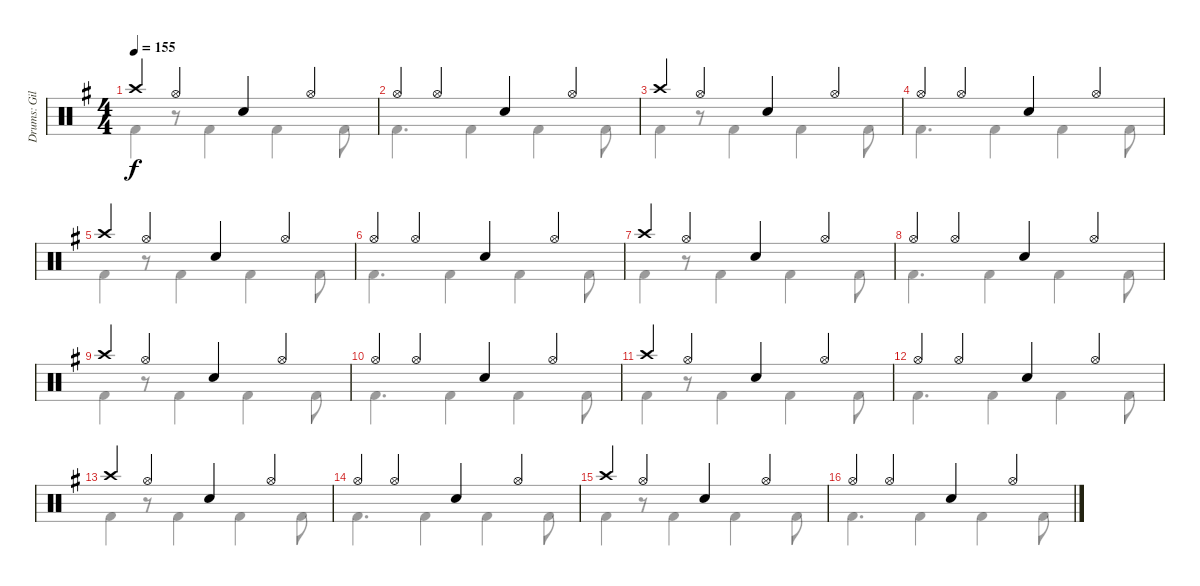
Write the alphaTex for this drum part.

\track ("Drums: Gil" "Drums: Gil") {instrument percussion}
\staff {score}
\articulation defaults
\voice
\ts (4 4)
\tempo 155
\clef neutral
\ks g "Crash high (hit)".4{dy f} "Hi-Hat (open)".4{beam merge} "Snare (hit) 2".4 "Hi-Hat (open)".4
|
"Hi-Hat (open)".4 "Hi-Hat (open)".4{beam merge} "Snare (hit) 2".4 "Hi-Hat (open)".4 |
"Crash high (hit)".4 "Hi-Hat (open)".4{beam merge} "Snare (hit) 2".4 "Hi-Hat (open)".4 |
"Hi-Hat (open)".4 "Hi-Hat (open)".4{beam merge} "Snare (hit) 2".4 "Hi-Hat (open)".4 |
"Crash high (hit)".4 "Hi-Hat (open)".4{beam merge} "Snare (hit) 2".4 "Hi-Hat (open)".4 |
"Hi-Hat (open)".4 "Hi-Hat (open)".4{beam merge} "Snare (hit) 2".4 "Hi-Hat (open)".4 |
"Crash high (hit)".4 "Hi-Hat (open)".4{beam merge} "Snare (hit) 2".4 "Hi-Hat (open)".4 |
"Hi-Hat (open)".4 "Hi-Hat (open)".4{beam merge} "Snare (hit) 2".4 "Hi-Hat (open)".4 |
"Crash high (hit)".4 "Hi-Hat (open)".4{beam merge} "Snare (hit) 2".4 "Hi-Hat (open)".4 |
"Hi-Hat (open)".4 "Hi-Hat (open)".4{beam merge} "Snare (hit) 2".4 "Hi-Hat (open)".4 |
"Crash high (hit)".4 "Hi-Hat (open)".4{beam merge} "Snare (hit) 2".4 "Hi-Hat (open)".4 |
"Hi-Hat (open)".4 "Hi-Hat (open)".4{beam merge} "Snare (hit) 2".4 "Hi-Hat (open)".4 |
"Crash high (hit)".4 "Hi-Hat (open)".4{beam merge} "Snare (hit) 2".4 "Hi-Hat (open)".4 |
"Hi-Hat (open)".4 "Hi-Hat (open)".4{beam merge} "Snare (hit) 2".4 "Hi-Hat (open)".4 |
"Crash high (hit)".4 "Hi-Hat (open)".4{beam merge} "Snare (hit) 2".4 "Hi-Hat (open)".4 |
"Hi-Hat (open)".4 "Hi-Hat (open)".4{beam merge} "Snare (hit) 2".4 "Hi-Hat (open)".4
\voice
\clef neutral
\ottava regular
\simile none
\ks g "Kick (hit) 2".4{dy f}
r.8 "Kick (hit) 2".4 "Kick (hit) 2".4 "Kick (hit) 2".8 |
"Kick (hit) 2".4{d} "Kick (hit) 2".4 "Kick (hit) 2".4 "Kick (hit) 2".8 |
"Kick (hit) 2".4 r.8 "Kick (hit) 2".4 "Kick (hit) 2".4 "Kick (hit) 2".8 |
"Kick (hit) 2".4{d} "Kick (hit) 2".4 "Kick (hit) 2".4 "Kick (hit) 2".8 |
"Kick (hit) 2".4 r.8 "Kick (hit) 2".4 "Kick (hit) 2".4 "Kick (hit) 2".8 |
"Kick (hit) 2".4{d} "Kick (hit) 2".4 "Kick (hit) 2".4 "Kick (hit) 2".8 |
"Kick (hit) 2".4 r.8 "Kick (hit) 2".4 "Kick (hit) 2".4 "Kick (hit) 2".8 |
"Kick (hit) 2".4{d} "Kick (hit) 2".4 "Kick (hit) 2".4 "Kick (hit) 2".8 |
"Kick (hit) 2".4 r.8 "Kick (hit) 2".4 "Kick (hit) 2".4 "Kick (hit) 2".8 |
"Kick (hit) 2".4{d} "Kick (hit) 2".4 "Kick (hit) 2".4 "Kick (hit) 2".8 |
"Kick (hit) 2".4 r.8 "Kick (hit) 2".4 "Kick (hit) 2".4 "Kick (hit) 2".8 |
"Kick (hit) 2".4{d} "Kick (hit) 2".4 "Kick (hit) 2".4 "Kick (hit) 2".8 |
"Kick (hit) 2".4 r.8 "Kick (hit) 2".4 "Kick (hit) 2".4 "Kick (hit) 2".8 |
"Kick (hit) 2".4{d} "Kick (hit) 2".4 "Kick (hit) 2".4 "Kick (hit) 2".8 |
"Kick (hit) 2".4 r.8 "Kick (hit) 2".4 "Kick (hit) 2".4 "Kick (hit) 2".8 |
"Kick (hit) 2".4{d} "Kick (hit) 2".4 "Kick (hit) 2".4 "Kick (hit) 2".8
